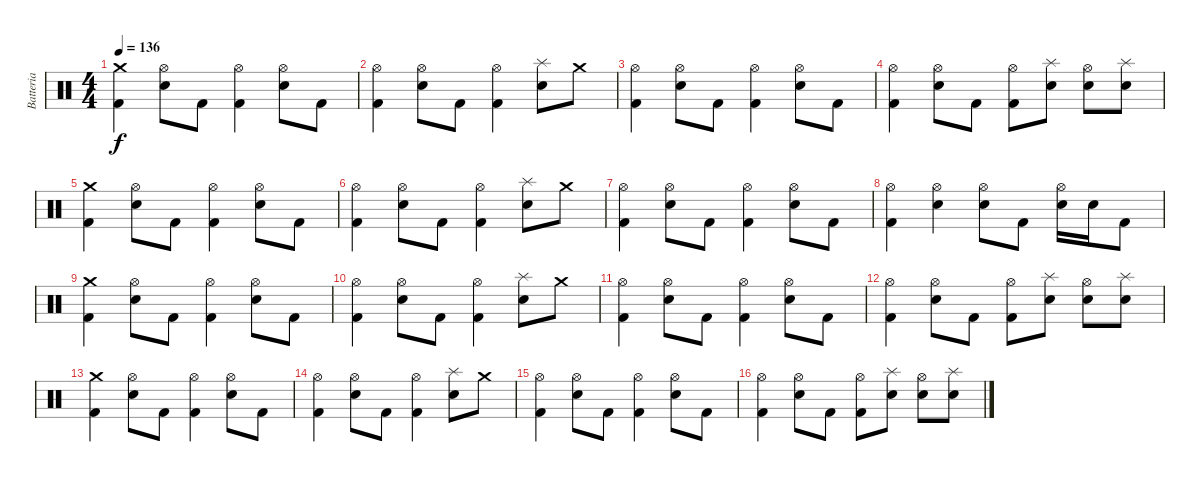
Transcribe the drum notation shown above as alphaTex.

\track ("Batteria" "Batteria") {instrument percussion}
\staff {score}
\articulation defaults
\ts (4 4)
\tempo 136
\clef neutral
\ks c
("Crash medium (hit)" "Kick (hit) 2").4{dy f} ("Hi-Hat (open)" "Electric Snare (hit)").8 "Kick (hit) 2".8 ("Hi-Hat (open)" "Kick (hit) 2").4 ("Hi-Hat (open)" "Electric Snare (hit)").8 "Kick (hit) 2".8 |
("Hi-Hat (open)" "Kick (hit) 2").4 ("Hi-Hat (open)" "Electric Snare (hit)").8 "Kick (hit) 2".8 ("Hi-Hat (open)" "Kick (hit) 2").4 ("Splash (hit)" "Electric Snare (hit)").8 "Crash medium (hit)".8 |
("Hi-Hat (open)" "Kick (hit) 2").4 ("Hi-Hat (open)" "Electric Snare (hit)").8 "Kick (hit) 2".8 ("Hi-Hat (open)" "Kick (hit) 2").4 ("Hi-Hat (open)" "Electric Snare (hit)").8 "Kick (hit) 2".8 |
("Hi-Hat (open)" "Kick (hit) 2").4 ("Hi-Hat (open)" "Electric Snare (hit)").8 "Kick (hit) 2".8 ("Hi-Hat (open)" "Kick (hit) 2").8 ("Splash (hit)" "Electric Snare (hit)").8 ("Hi-Hat (open)" "Electric Snare (hit)").8 ("Splash (hit)" "Electric Snare (hit)").8 |
("Crash medium (hit)" "Kick (hit) 2").4 ("Hi-Hat (open)" "Electric Snare (hit)").8 "Kick (hit) 2".8 ("Hi-Hat (open)" "Kick (hit) 2").4 ("Hi-Hat (open)" "Electric Snare (hit)").8 "Kick (hit) 2".8 |
("Hi-Hat (open)" "Kick (hit) 2").4 ("Hi-Hat (open)" "Electric Snare (hit)").8 "Kick (hit) 2".8 ("Hi-Hat (open)" "Kick (hit) 2").4 ("Splash (hit)" "Electric Snare (hit)").8 "Crash medium (hit)".8 |
("Hi-Hat (open)" "Kick (hit) 2").4 ("Hi-Hat (open)" "Electric Snare (hit)").8 "Kick (hit) 2".8 ("Hi-Hat (open)" "Kick (hit) 2").4 ("Hi-Hat (open)" "Electric Snare (hit)").8 "Kick (hit) 2".8 |
("Hi-Hat (open)" "Kick (hit) 2").4 ("Hi-Hat (open)" "Electric Snare (hit)").4 ("Hi-Hat (open)" "Electric Snare (hit)").8 "Kick (hit) 2".8 ("Hi-Hat (open)" "Electric Snare (hit)").16 "Electric Snare (hit)".16 "Kick (hit) 2".8 |
("Crash medium (hit)" "Kick (hit) 2").4 ("Hi-Hat (open)" "Electric Snare (hit)").8 "Kick (hit) 2".8 ("Hi-Hat (open)" "Kick (hit) 2").4 ("Hi-Hat (open)" "Electric Snare (hit)").8 "Kick (hit) 2".8 |
("Hi-Hat (open)" "Kick (hit) 2").4 ("Hi-Hat (open)" "Electric Snare (hit)").8 "Kick (hit) 2".8 ("Hi-Hat (open)" "Kick (hit) 2").4 ("Splash (hit)" "Electric Snare (hit)").8 "Crash medium (hit)".8 |
("Hi-Hat (open)" "Kick (hit) 2").4 ("Hi-Hat (open)" "Electric Snare (hit)").8 "Kick (hit) 2".8 ("Hi-Hat (open)" "Kick (hit) 2").4 ("Hi-Hat (open)" "Electric Snare (hit)").8 "Kick (hit) 2".8 |
("Hi-Hat (open)" "Kick (hit) 2").4 ("Hi-Hat (open)" "Electric Snare (hit)").8 "Kick (hit) 2".8 ("Hi-Hat (open)" "Kick (hit) 2").8 ("Splash (hit)" "Electric Snare (hit)").8 ("Hi-Hat (open)" "Electric Snare (hit)").8 ("Splash (hit)" "Electric Snare (hit)").8 |
("Crash medium (hit)" "Kick (hit) 2").4 ("Hi-Hat (open)" "Electric Snare (hit)").8 "Kick (hit) 2".8 ("Hi-Hat (open)" "Kick (hit) 2").4 ("Hi-Hat (open)" "Electric Snare (hit)").8 "Kick (hit) 2".8 |
("Hi-Hat (open)" "Kick (hit) 2").4 ("Hi-Hat (open)" "Electric Snare (hit)").8 "Kick (hit) 2".8 ("Hi-Hat (open)" "Kick (hit) 2").4 ("Splash (hit)" "Electric Snare (hit)").8 "Crash medium (hit)".8 |
("Hi-Hat (open)" "Kick (hit) 2").4 ("Hi-Hat (open)" "Electric Snare (hit)").8 "Kick (hit) 2".8 ("Hi-Hat (open)" "Kick (hit) 2").4 ("Hi-Hat (open)" "Electric Snare (hit)").8 "Kick (hit) 2".8 |
("Hi-Hat (open)" "Kick (hit) 2").4 ("Hi-Hat (open)" "Electric Snare (hit)").8 "Kick (hit) 2".8 ("Hi-Hat (open)" "Kick (hit) 2").8 ("Splash (hit)" "Electric Snare (hit)").8 ("Hi-Hat (open)" "Electric Snare (hit)").8 ("Splash (hit)" "Electric Snare (hit)").8
